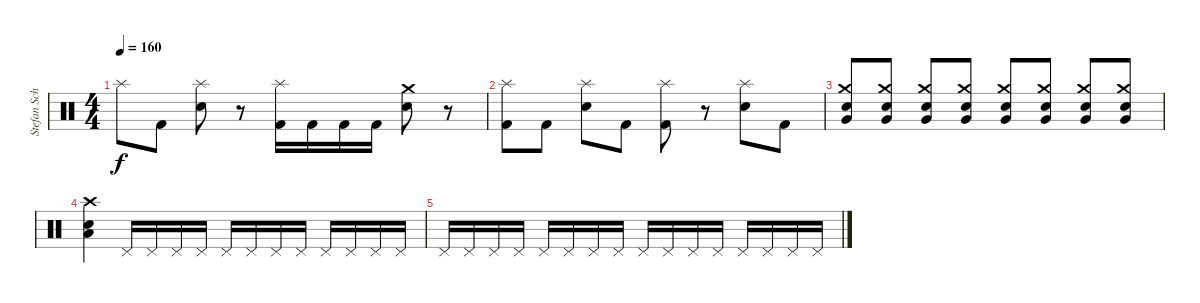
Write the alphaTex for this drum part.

\track ("Stefan Schwarzmann" "Stefan Sch") {instrument percussion}
\staff {score}
\articulation defaults
\ts (4 4)
\tempo 160
\clef neutral
\ks c "Splash (hit)".8{dy f} "Kick (hit) 2".8
("Splash (hit)" "Snare (hit) 2").8 r.8 ("Splash (hit)" "Kick (hit) 2").16 "Kick (hit) 2".16 "Kick (hit) 2".16 "Kick (hit) 2".16 ("Crash medium (hit)" "Snare (hit) 2").8 r.8 |
("Splash (hit)" "Kick (hit) 2").8 "Kick (hit) 2".8 ("Splash (hit)" "Snare (hit) 2").8 "Kick (hit) 2".8 ("Splash (hit)" "Kick (hit) 2").8 r.8 ("Splash (hit)" "Snare (hit) 2").8 "Kick (hit) 2".8 |
("Crash medium (hit)" "Snare (hit) 2" "Very Low Tom (hit)").8 ("Crash medium (hit)" "Snare (hit) 2" "Very Low Tom (hit)").8 ("Crash medium (hit)" "Snare (hit) 2" "Very Low Tom (hit)").8 ("Crash medium (hit)" "Snare (hit) 2" "Very Low Tom (hit)").8 ("Crash medium (hit)" "Snare (hit) 2" "Very Low Tom (hit)").8 ("Crash medium (hit)" "Snare (hit) 2" "Very Low Tom (hit)").8 ("Crash medium (hit)" "Snare (hit) 2" "Very Low Tom (hit)").8 ("Crash medium (hit)" "Snare (hit) 2" "Very Low Tom (hit)").8 |
("Crash high (hit)" "Snare (hit) 2" "Low Floor Tom (hit)").4 "Pedal Hi-Hat (hit)".16 "Pedal Hi-Hat (hit)".16 "Pedal Hi-Hat (hit)".16 "Pedal Hi-Hat (hit)".16 "Pedal Hi-Hat (hit)".16 "Pedal Hi-Hat (hit)".16 "Pedal Hi-Hat (hit)".16 "Pedal Hi-Hat (hit)".16 "Pedal Hi-Hat (hit)".16 "Pedal Hi-Hat (hit)".16 "Pedal Hi-Hat (hit)".16 "Pedal Hi-Hat (hit)".16 |
"Pedal Hi-Hat (hit)".16 "Pedal Hi-Hat (hit)".16 "Pedal Hi-Hat (hit)".16 "Pedal Hi-Hat (hit)".16 "Pedal Hi-Hat (hit)".16 "Pedal Hi-Hat (hit)".16 "Pedal Hi-Hat (hit)".16 "Pedal Hi-Hat (hit)".16 "Pedal Hi-Hat (hit)".16 "Pedal Hi-Hat (hit)".16 "Pedal Hi-Hat (hit)".16 "Pedal Hi-Hat (hit)".16 "Pedal Hi-Hat (hit)".16 "Pedal Hi-Hat (hit)".16 "Pedal Hi-Hat (hit)".16 "Pedal Hi-Hat (hit)".16
